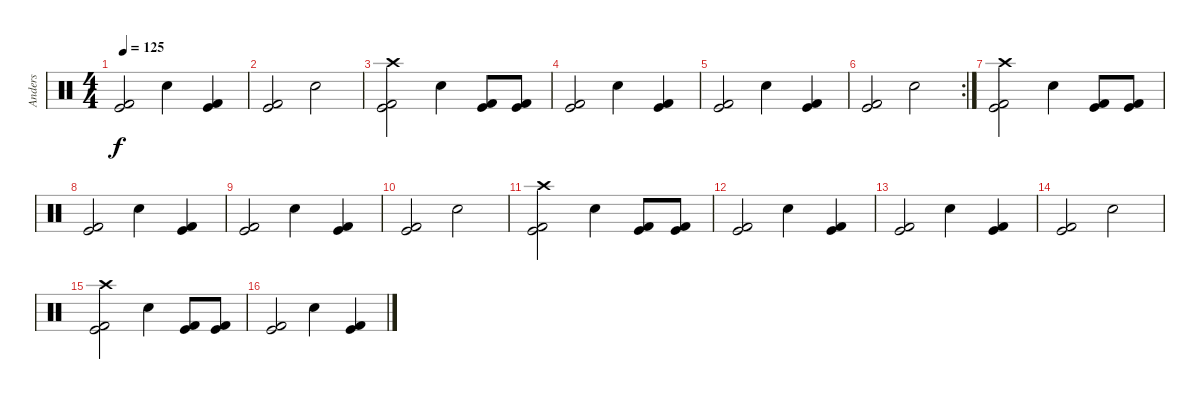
\track ("Anders" "Anders") {instrument percussion}
\staff {score}
\articulation defaults
\ts (4 4)
\tempo 125
\clef neutral
\ks c
("Kick (hit) 2" "Kick (hit)").2{dy f} "Electric Snare (hit)".4 ("Kick (hit) 2" "Kick (hit)").4 |
("Kick (hit) 2" "Kick (hit)").2 "Electric Snare (hit)".2 |
("Crash high (hit)" "Kick (hit) 2" "Kick (hit)").2 "Electric Snare (hit)".4 ("Kick (hit) 2" "Kick (hit)").8 ("Kick (hit) 2" "Kick (hit)").8 |
("Kick (hit) 2" "Kick (hit)").2 "Electric Snare (hit)".4 ("Kick (hit) 2" "Kick (hit)").4 |
("Kick (hit) 2" "Kick (hit)").2 "Electric Snare (hit)".4 ("Kick (hit) 2" "Kick (hit)").4 |
\rc 2
("Kick (hit) 2" "Kick (hit)").2 "Electric Snare (hit)".2 |
("Crash high (hit)" "Kick (hit) 2" "Kick (hit)").2 "Electric Snare (hit)".4 ("Kick (hit) 2" "Kick (hit)").8 ("Kick (hit) 2" "Kick (hit)").8 |
("Kick (hit) 2" "Kick (hit)").2 "Electric Snare (hit)".4 ("Kick (hit) 2" "Kick (hit)").4 |
("Kick (hit) 2" "Kick (hit)").2 "Electric Snare (hit)".4 ("Kick (hit) 2" "Kick (hit)").4 |
("Kick (hit) 2" "Kick (hit)").2 "Electric Snare (hit)".2 |
("Crash high (hit)" "Kick (hit) 2" "Kick (hit)").2 "Electric Snare (hit)".4 ("Kick (hit) 2" "Kick (hit)").8 ("Kick (hit) 2" "Kick (hit)").8 |
("Kick (hit) 2" "Kick (hit)").2 "Electric Snare (hit)".4 ("Kick (hit) 2" "Kick (hit)").4 |
("Kick (hit) 2" "Kick (hit)").2 "Electric Snare (hit)".4 ("Kick (hit) 2" "Kick (hit)").4 |
("Kick (hit) 2" "Kick (hit)").2 "Electric Snare (hit)".2 |
("Crash high (hit)" "Kick (hit) 2" "Kick (hit)").2 "Electric Snare (hit)".4 ("Kick (hit) 2" "Kick (hit)").8 ("Kick (hit) 2" "Kick (hit)").8 |
("Kick (hit) 2" "Kick (hit)").2 "Electric Snare (hit)".4 ("Kick (hit) 2" "Kick (hit)").4
